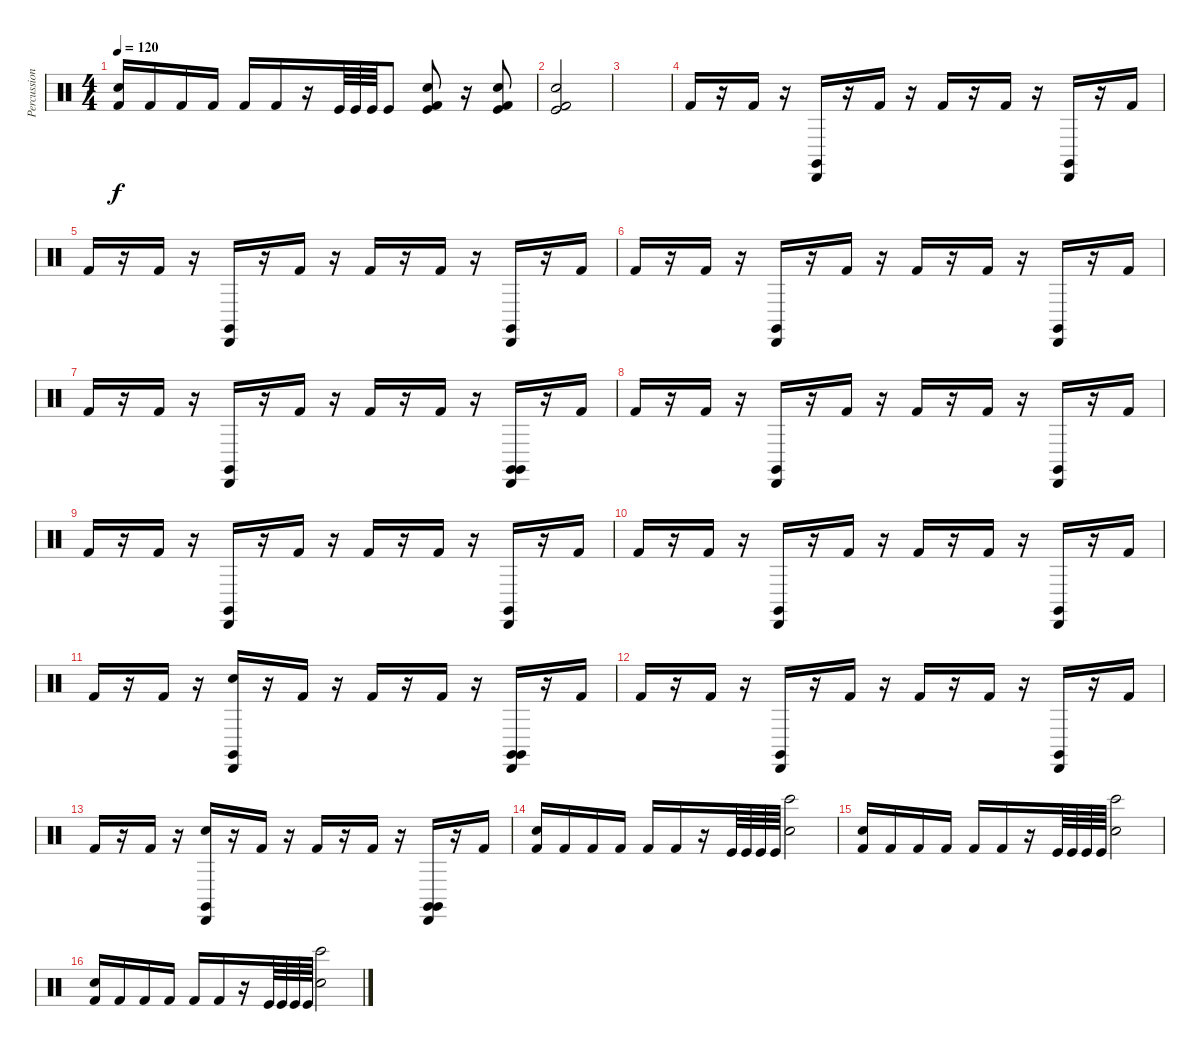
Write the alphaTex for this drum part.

\track ("Percussion" "Percussion") {instrument percussion}
\staff {score}
\articulation defaults
\ts (4 4)
\tempo 120
\clef neutral
\ks c
("Kick (hit) 2" "Snare (hit) 2").16{dy f} "Kick (hit) 2".16 "Kick (hit) 2".16 "Kick (hit) 2".16 "Kick (hit) 2".16 "Kick (hit) 2".16 r.16 "Kick (hit)".64 "Kick (hit)".64 "Kick (hit)".64 "Kick (hit)".8 ("Kick (hit) 2" "Snare (hit) 2" "Kick (hit)").8 r.16 ("Kick (hit) 2" "Snare (hit) 2" "Kick (hit)").8 |
("Kick (hit) 2" "Kick (hit)" "Snare (hit) 2").2 |
|
"Kick (hit) 2".16 r.16 "Kick (hit) 2".16 r.16 ("Cabasa (hit)" "Claves (hit)").16 r.16 "Kick (hit) 2".16 r.16 "Kick (hit) 2".16 r.16 "Kick (hit) 2".16 r.16 ("Cabasa (hit)" "Claves (hit)").16 r.16 "Kick (hit) 2".16 |
"Kick (hit) 2".16 r.16 "Kick (hit) 2".16 r.16 ("Cabasa (hit)" "Claves (hit)").16 r.16 "Kick (hit) 2".16 r.16 "Kick (hit) 2".16 r.16 "Kick (hit) 2".16 r.16 ("Cabasa (hit)" "Claves (hit)").16 r.16 "Kick (hit) 2".16 |
"Kick (hit) 2".16 r.16 "Kick (hit) 2".16 r.16 ("Cabasa (hit)" "Claves (hit)").16 r.16 "Kick (hit) 2".16 r.16 "Kick (hit) 2".16 r.16 "Kick (hit) 2".16 r.16 ("Cabasa (hit)" "Claves (hit)").16 r.16 "Kick (hit) 2".16 |
"Kick (hit) 2".16 r.16 "Kick (hit) 2".16 r.16 ("Cabasa (hit)" "Claves (hit)").16 r.16 "Kick (hit) 2".16 r.16 "Kick (hit) 2".16 r.16 "Kick (hit) 2".16 r.16 ("Claves (hit)" "Cabasa (hit)" "Claves (hit)").16 r.16 "Kick (hit) 2".16 |
"Kick (hit) 2".16 r.16 "Kick (hit) 2".16 r.16 ("Cabasa (hit)" "Claves (hit)").16 r.16 "Kick (hit) 2".16 r.16 "Kick (hit) 2".16 r.16 "Kick (hit) 2".16 r.16 ("Cabasa (hit)" "Claves (hit)").16 r.16 "Kick (hit) 2".16 |
"Kick (hit) 2".16 r.16 "Kick (hit) 2".16 r.16 ("Cabasa (hit)" "Claves (hit)").16 r.16 "Kick (hit) 2".16 r.16 "Kick (hit) 2".16 r.16 "Kick (hit) 2".16 r.16 ("Cabasa (hit)" "Claves (hit)").16 r.16 "Kick (hit) 2".16 |
"Kick (hit) 2".16 r.16 "Kick (hit) 2".16 r.16 ("Cabasa (hit)" "Claves (hit)").16 r.16 "Kick (hit) 2".16 r.16 "Kick (hit) 2".16 r.16 "Kick (hit) 2".16 r.16 ("Cabasa (hit)" "Claves (hit)").16 r.16 "Kick (hit) 2".16 |
"Kick (hit) 2".16 r.16 "Kick (hit) 2".16 r.16 ("Snare (hit)" "Cabasa (hit)" "Claves (hit)").16 r.16 "Kick (hit) 2".16 r.16 "Kick (hit) 2".16 r.16 "Kick (hit) 2".16 r.16 ("Claves (hit)" "Cabasa (hit)" "Claves (hit)").16 r.16 "Kick (hit) 2".16 |
"Kick (hit) 2".16 r.16 "Kick (hit) 2".16 r.16 ("Cabasa (hit)" "Claves (hit)").16 r.16 "Kick (hit) 2".16 r.16 "Kick (hit) 2".16 r.16 "Kick (hit) 2".16 r.16 ("Cabasa (hit)" "Claves (hit)").16 r.16 "Kick (hit) 2".16 |
"Kick (hit) 2".16 r.16 "Kick (hit) 2".16 r.16 ("Snare (hit)" "Cabasa (hit)" "Claves (hit)").16 r.16 "Kick (hit) 2".16 r.16 "Kick (hit) 2".16 r.16 "Kick (hit) 2".16 r.16 ("Claves (hit)" "Cabasa (hit)" "Claves (hit)").16 r.16 "Kick (hit) 2".16 |
("Kick (hit) 2" "Snare (hit) 2").16 "Kick (hit) 2".16 "Kick (hit) 2".16 "Kick (hit) 2".16 "Kick (hit) 2".16 "Kick (hit) 2".16 r.16 "Kick (hit)".64 "Kick (hit)".64 "Kick (hit)".64 "Kick (hit)".64 ("Bongo High (hit)" "Snare (hit) 2").2 |
("Kick (hit) 2" "Snare (hit) 2").16 "Kick (hit) 2".16 "Kick (hit) 2".16 "Kick (hit) 2".16 "Kick (hit) 2".16 "Kick (hit) 2".16 r.16 "Kick (hit)".64 "Kick (hit)".64 "Kick (hit)".64 "Kick (hit)".64 ("Bongo High (hit)" "Snare (hit) 2").2 |
("Kick (hit) 2" "Snare (hit) 2").16 "Kick (hit) 2".16 "Kick (hit) 2".16 "Kick (hit) 2".16 "Kick (hit) 2".16 "Kick (hit) 2".16 r.16 "Kick (hit)".64 "Kick (hit)".64 "Kick (hit)".64 "Kick (hit)".64 ("Bongo High (hit)" "Snare (hit) 2").2
